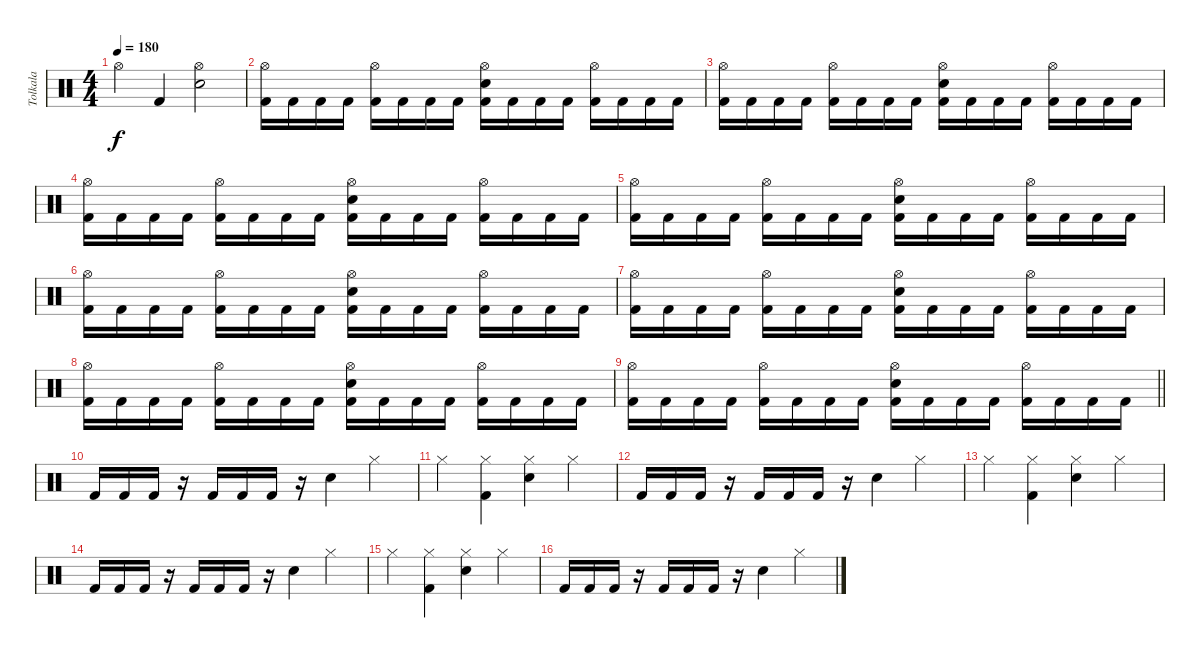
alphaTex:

\track ("Tolkala" "Tolkala") {instrument percussion}
\staff {score}
\articulation defaults
\ts (4 4)
\tempo 180
\clef neutral
\ks c "Hi-Hat (open)".4{dy f} "Kick (hit) 2".4
("Hi-Hat (open)" "Electric Snare (hit)").2 |
("Hi-Hat (open)" "Kick (hit) 2").16 "Kick (hit) 2".16 "Kick (hit) 2".16 "Kick (hit) 2".16 ("Hi-Hat (open)" "Kick (hit) 2").16 "Kick (hit) 2".16 "Kick (hit) 2".16 "Kick (hit) 2".16 ("Hi-Hat (open)" "Electric Snare (hit)" "Kick (hit) 2").16 "Kick (hit) 2".16 "Kick (hit) 2".16 "Kick (hit) 2".16 ("Hi-Hat (open)" "Kick (hit) 2").16 "Kick (hit) 2".16 "Kick (hit) 2".16 "Kick (hit) 2".16 |
("Hi-Hat (open)" "Kick (hit) 2").16 "Kick (hit) 2".16 "Kick (hit) 2".16 "Kick (hit) 2".16 ("Hi-Hat (open)" "Kick (hit) 2").16 "Kick (hit) 2".16 "Kick (hit) 2".16 "Kick (hit) 2".16 ("Hi-Hat (open)" "Electric Snare (hit)" "Kick (hit) 2").16 "Kick (hit) 2".16 "Kick (hit) 2".16 "Kick (hit) 2".16 ("Hi-Hat (open)" "Kick (hit) 2").16 "Kick (hit) 2".16 "Kick (hit) 2".16 "Kick (hit) 2".16 |
("Hi-Hat (open)" "Kick (hit) 2").16 "Kick (hit) 2".16 "Kick (hit) 2".16 "Kick (hit) 2".16 ("Hi-Hat (open)" "Kick (hit) 2").16 "Kick (hit) 2".16 "Kick (hit) 2".16 "Kick (hit) 2".16 ("Hi-Hat (open)" "Electric Snare (hit)" "Kick (hit) 2").16 "Kick (hit) 2".16 "Kick (hit) 2".16 "Kick (hit) 2".16 ("Hi-Hat (open)" "Kick (hit) 2").16 "Kick (hit) 2".16 "Kick (hit) 2".16 "Kick (hit) 2".16 |
("Hi-Hat (open)" "Kick (hit) 2").16 "Kick (hit) 2".16 "Kick (hit) 2".16 "Kick (hit) 2".16 ("Hi-Hat (open)" "Kick (hit) 2").16 "Kick (hit) 2".16 "Kick (hit) 2".16 "Kick (hit) 2".16 ("Hi-Hat (open)" "Electric Snare (hit)" "Kick (hit) 2").16 "Kick (hit) 2".16 "Kick (hit) 2".16 "Kick (hit) 2".16 ("Hi-Hat (open)" "Kick (hit) 2").16 "Kick (hit) 2".16 "Kick (hit) 2".16 "Kick (hit) 2".16 |
("Hi-Hat (open)" "Kick (hit) 2").16 "Kick (hit) 2".16 "Kick (hit) 2".16 "Kick (hit) 2".16 ("Hi-Hat (open)" "Kick (hit) 2").16 "Kick (hit) 2".16 "Kick (hit) 2".16 "Kick (hit) 2".16 ("Hi-Hat (open)" "Electric Snare (hit)" "Kick (hit) 2").16 "Kick (hit) 2".16 "Kick (hit) 2".16 "Kick (hit) 2".16 ("Hi-Hat (open)" "Kick (hit) 2").16 "Kick (hit) 2".16 "Kick (hit) 2".16 "Kick (hit) 2".16 |
("Hi-Hat (open)" "Kick (hit) 2").16 "Kick (hit) 2".16 "Kick (hit) 2".16 "Kick (hit) 2".16 ("Hi-Hat (open)" "Kick (hit) 2").16 "Kick (hit) 2".16 "Kick (hit) 2".16 "Kick (hit) 2".16 ("Hi-Hat (open)" "Electric Snare (hit)" "Kick (hit) 2").16 "Kick (hit) 2".16 "Kick (hit) 2".16 "Kick (hit) 2".16 ("Hi-Hat (open)" "Kick (hit) 2").16 "Kick (hit) 2".16 "Kick (hit) 2".16 "Kick (hit) 2".16 |
("Hi-Hat (open)" "Kick (hit) 2").16 "Kick (hit) 2".16 "Kick (hit) 2".16 "Kick (hit) 2".16 ("Hi-Hat (open)" "Kick (hit) 2").16 "Kick (hit) 2".16 "Kick (hit) 2".16 "Kick (hit) 2".16 ("Hi-Hat (open)" "Electric Snare (hit)" "Kick (hit) 2").16 "Kick (hit) 2".16 "Kick (hit) 2".16 "Kick (hit) 2".16 ("Hi-Hat (open)" "Kick (hit) 2").16 "Kick (hit) 2".16 "Kick (hit) 2".16 "Kick (hit) 2".16 |
\barLineRight lightlight
("Hi-Hat (open)" "Kick (hit) 2").16 "Kick (hit) 2".16 "Kick (hit) 2".16 "Kick (hit) 2".16 ("Hi-Hat (open)" "Kick (hit) 2").16 "Kick (hit) 2".16 "Kick (hit) 2".16 "Kick (hit) 2".16 ("Hi-Hat (open)" "Electric Snare (hit)" "Kick (hit) 2").16 "Kick (hit) 2".16 "Kick (hit) 2".16 "Kick (hit) 2".16 ("Hi-Hat (open)" "Kick (hit) 2").16 "Kick (hit) 2".16 "Kick (hit) 2".16 "Kick (hit) 2".16 |
\section ("" "")
"Kick (hit) 2".16 "Kick (hit) 2".16 "Kick (hit) 2".16 r.16 "Kick (hit) 2".16 "Kick (hit) 2".16 "Kick (hit) 2".16 r.16 "Electric Snare (hit)".4 "Hi-Hat (closed)".4 |
"Hi-Hat (closed)".4 ("Hi-Hat (closed)" "Kick (hit) 2").4 ("Hi-Hat (closed)" "Electric Snare (hit)").4 "Hi-Hat (closed)".4 |
"Kick (hit) 2".16 "Kick (hit) 2".16 "Kick (hit) 2".16 r.16 "Kick (hit) 2".16 "Kick (hit) 2".16 "Kick (hit) 2".16 r.16 "Electric Snare (hit)".4 "Hi-Hat (closed)".4 |
"Hi-Hat (closed)".4 ("Hi-Hat (closed)" "Kick (hit) 2").4 ("Hi-Hat (closed)" "Electric Snare (hit)").4 "Hi-Hat (closed)".4 |
"Kick (hit) 2".16 "Kick (hit) 2".16 "Kick (hit) 2".16 r.16 "Kick (hit) 2".16 "Kick (hit) 2".16 "Kick (hit) 2".16 r.16 "Electric Snare (hit)".4 "Hi-Hat (closed)".4 |
"Hi-Hat (closed)".4 ("Hi-Hat (closed)" "Kick (hit) 2").4 ("Hi-Hat (closed)" "Electric Snare (hit)").4 "Hi-Hat (closed)".4 |
"Kick (hit) 2".16 "Kick (hit) 2".16 "Kick (hit) 2".16 r.16 "Kick (hit) 2".16 "Kick (hit) 2".16 "Kick (hit) 2".16 r.16 "Electric Snare (hit)".4 "Hi-Hat (closed)".4
